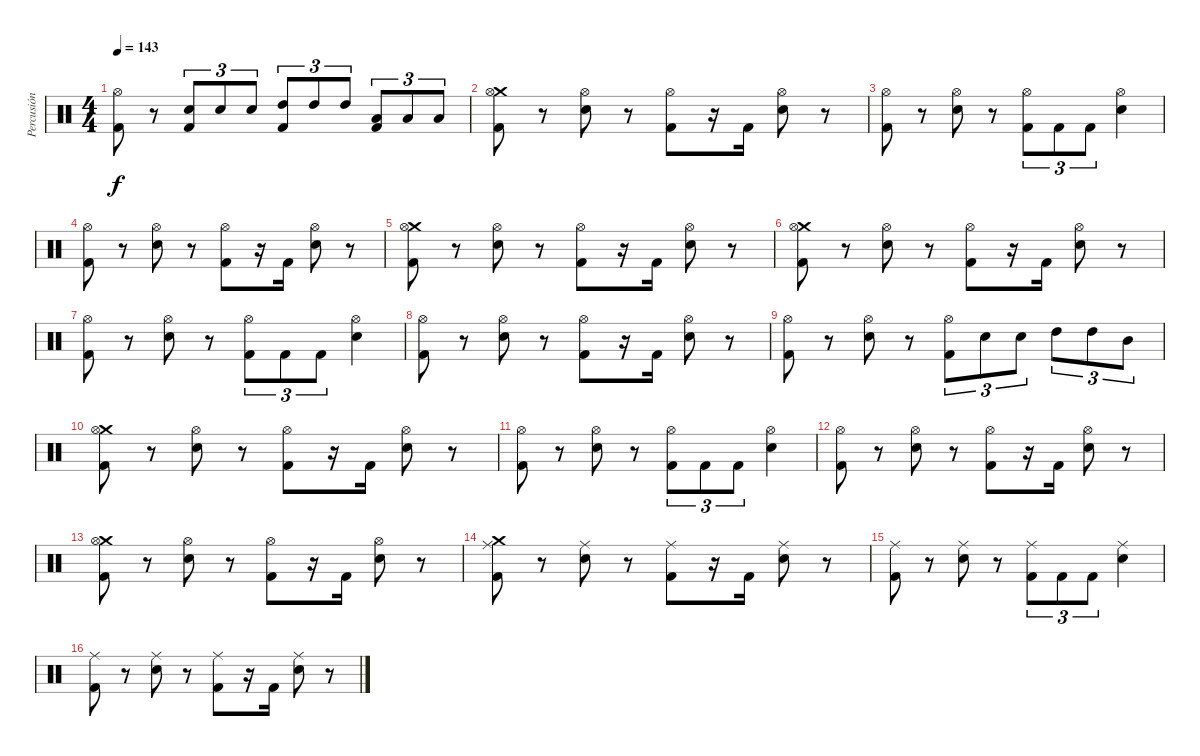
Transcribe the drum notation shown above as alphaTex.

\track ("Percusión" "Percusión") {instrument percussion}
\staff {score}
\articulation defaults
\ts (4 4)
\tempo 143
\clef neutral
\ks c
("Hi-Hat (open)" "Kick (hit) 2").8{dy f} r.8 ("Electric Snare (hit)" "Kick (hit) 2").8{tu (3 2)} "Electric Snare (hit)".8{tu (3 2)} "Electric Snare (hit)".8{tu (3 2)} ("High Tom (hit)" "Kick (hit) 2").8{tu (3 2)} "High Tom (hit)".8{tu (3 2)} "High Tom (hit)".8{tu (3 2)} ("Low Tom (hit)" "Kick (hit) 2").8{tu (3 2)} "Low Tom (hit)".8{tu (3 2)} "Low Tom (hit)".8{tu (3 2)} |
("Crash medium (hit)" "Hi-Hat (open)" "Kick (hit) 2").8 r.8 ("Hi-Hat (open)" "Electric Snare (hit)").8 r.8 ("Hi-Hat (open)" "Kick (hit) 2").8 r.16 "Kick (hit) 2".16 ("Electric Snare (hit)" "Hi-Hat (open)").8 r.8 |
("Hi-Hat (open)" "Kick (hit) 2").8 r.8 ("Hi-Hat (open)" "Electric Snare (hit)").8 r.8 ("Hi-Hat (open)" "Kick (hit) 2").8{tu (3 2)} "Kick (hit) 2".8{tu (3 2)} "Kick (hit) 2".8{tu (3 2)} ("Hi-Hat (open)" "Electric Snare (hit)").4 |
("Hi-Hat (open)" "Kick (hit) 2").8 r.8 ("Hi-Hat (open)" "Electric Snare (hit)").8 r.8 ("Hi-Hat (open)" "Kick (hit) 2").8 r.16 "Kick (hit) 2".16 ("Electric Snare (hit)" "Hi-Hat (open)").8 r.8 |
("Crash medium (hit)" "Hi-Hat (open)" "Kick (hit) 2").8 r.8 ("Hi-Hat (open)" "Electric Snare (hit)").8 r.8 ("Hi-Hat (open)" "Kick (hit) 2").8 r.16 "Kick (hit) 2".16 ("Electric Snare (hit)" "Hi-Hat (open)").8 r.8 |
("Crash medium (hit)" "Hi-Hat (open)" "Kick (hit) 2").8 r.8 ("Hi-Hat (open)" "Electric Snare (hit)").8 r.8 ("Hi-Hat (open)" "Kick (hit) 2").8 r.16 "Kick (hit) 2".16 ("Electric Snare (hit)" "Hi-Hat (open)").8 r.8 |
("Hi-Hat (open)" "Kick (hit) 2").8 r.8 ("Hi-Hat (open)" "Electric Snare (hit)").8 r.8 ("Hi-Hat (open)" "Kick (hit) 2").8{tu (3 2)} "Kick (hit) 2".8{tu (3 2)} "Kick (hit) 2".8{tu (3 2)} ("Hi-Hat (open)" "Electric Snare (hit)").4 |
("Hi-Hat (open)" "Kick (hit) 2").8 r.8 ("Hi-Hat (open)" "Electric Snare (hit)").8 r.8 ("Hi-Hat (open)" "Kick (hit) 2").8 r.16 "Kick (hit) 2".16 ("Electric Snare (hit)" "Hi-Hat (open)").8 r.8 |
("Hi-Hat (open)" "Kick (hit) 2").8 r.8 ("Hi-Hat (open)" "Electric Snare (hit)").8 r.8 ("Hi-Hat (open)" "Kick (hit) 2").8{tu (3 2)} "Electric Snare (hit)".8{tu (3 2)} "Electric Snare (hit)".8{tu (3 2)} "High Tom (hit)".8{tu (3 2)} "High Tom (hit)".8{tu (3 2)} "Mid Tom (hit)".8{tu (3 2)} |
("Crash medium (hit)" "Hi-Hat (open)" "Kick (hit) 2").8 r.8 ("Hi-Hat (open)" "Electric Snare (hit)").8 r.8 ("Hi-Hat (open)" "Kick (hit) 2").8 r.16 "Kick (hit) 2".16 ("Electric Snare (hit)" "Hi-Hat (open)").8 r.8 |
("Hi-Hat (open)" "Kick (hit) 2").8 r.8 ("Hi-Hat (open)" "Electric Snare (hit)").8 r.8 ("Hi-Hat (open)" "Kick (hit) 2").8{tu (3 2)} "Kick (hit) 2".8{tu (3 2)} "Kick (hit) 2".8{tu (3 2)} ("Hi-Hat (open)" "Electric Snare (hit)").4 |
("Hi-Hat (open)" "Kick (hit) 2").8 r.8 ("Hi-Hat (open)" "Electric Snare (hit)").8 r.8 ("Hi-Hat (open)" "Kick (hit) 2").8 r.16 "Kick (hit) 2".16 ("Electric Snare (hit)" "Hi-Hat (open)").8 r.8 |
("Crash medium (hit)" "Hi-Hat (open)" "Kick (hit) 2").8 r.8 ("Hi-Hat (open)" "Electric Snare (hit)").8 r.8 ("Hi-Hat (open)" "Kick (hit) 2").8 r.16 "Kick (hit) 2".16 ("Electric Snare (hit)" "Hi-Hat (open)").8 r.8 |
("Crash medium (hit)" "Ride (middle)" "Kick (hit) 2").8 r.8 ("Ride (middle)" "Electric Snare (hit)").8 r.8 ("Ride (middle)" "Kick (hit) 2").8 r.16 "Kick (hit) 2".16 ("Electric Snare (hit)" "Ride (middle)").8 r.8 |
("Ride (middle)" "Kick (hit) 2").8 r.8 ("Ride (middle)" "Electric Snare (hit)").8 r.8 ("Ride (middle)" "Kick (hit) 2").8{tu (3 2)} "Kick (hit) 2".8{tu (3 2)} "Kick (hit) 2".8{tu (3 2)} ("Ride (middle)" "Electric Snare (hit)").4 |
("Ride (middle)" "Kick (hit) 2").8 r.8 ("Ride (middle)" "Electric Snare (hit)").8 r.8 ("Ride (middle)" "Kick (hit) 2").8 r.16 "Kick (hit) 2".16 ("Electric Snare (hit)" "Ride (middle)").8 r.8
